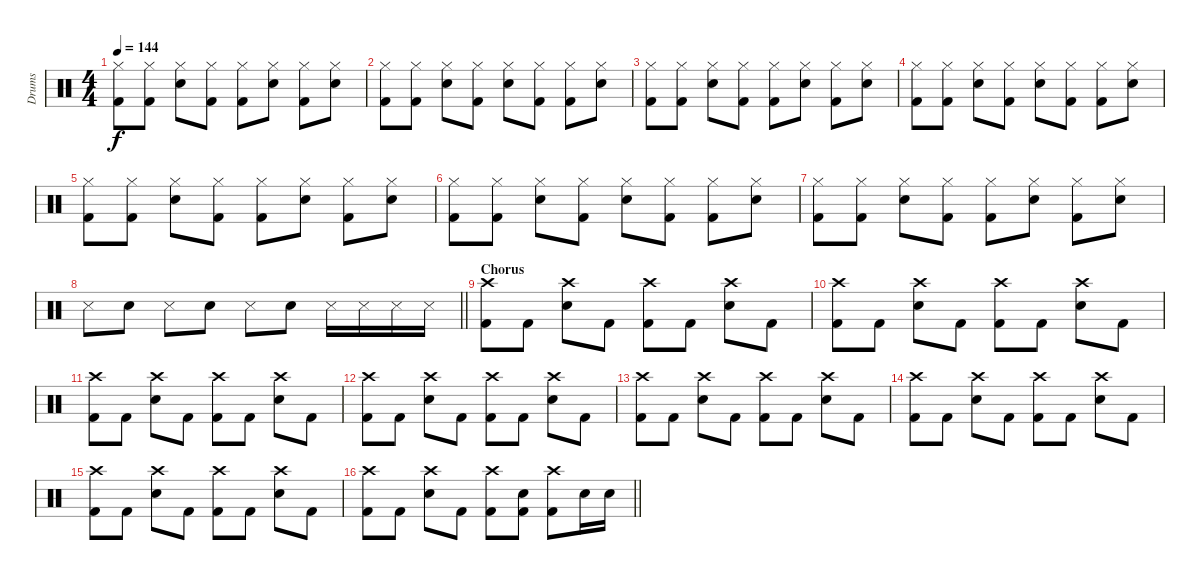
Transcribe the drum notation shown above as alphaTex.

\track ("Drums" "Drums") {instrument percussion}
\staff {score}
\articulation defaults
\ts (4 4)
\tempo 144
\clef neutral
\ks c
("Hi-Hat (closed)" "Kick (hit) 2").8{dy f} ("Hi-Hat (closed)" "Kick (hit) 2").8 ("Hi-Hat (closed)" "Electric Snare (hit)").8 ("Hi-Hat (closed)" "Kick (hit) 2").8 ("Hi-Hat (closed)" "Kick (hit) 2").8 ("Hi-Hat (closed)" "Electric Snare (hit)").8 ("Hi-Hat (closed)" "Kick (hit) 2").8 ("Hi-Hat (closed)" "Electric Snare (hit)").8 |
("Hi-Hat (closed)" "Kick (hit) 2").8 ("Hi-Hat (closed)" "Kick (hit) 2").8 ("Hi-Hat (closed)" "Electric Snare (hit)").8 ("Hi-Hat (closed)" "Kick (hit) 2").8 ("Hi-Hat (closed)" "Electric Snare (hit)").8 ("Hi-Hat (closed)" "Kick (hit) 2").8 ("Hi-Hat (closed)" "Kick (hit) 2").8 ("Hi-Hat (closed)" "Electric Snare (hit)").8 |
("Hi-Hat (closed)" "Kick (hit) 2").8 ("Hi-Hat (closed)" "Kick (hit) 2").8 ("Hi-Hat (closed)" "Electric Snare (hit)").8 ("Hi-Hat (closed)" "Kick (hit) 2").8 ("Hi-Hat (closed)" "Kick (hit) 2").8 ("Hi-Hat (closed)" "Electric Snare (hit)").8 ("Hi-Hat (closed)" "Kick (hit) 2").8 ("Hi-Hat (closed)" "Electric Snare (hit)").8 |
("Hi-Hat (closed)" "Kick (hit) 2").8 ("Hi-Hat (closed)" "Kick (hit) 2").8 ("Hi-Hat (closed)" "Electric Snare (hit)").8 ("Hi-Hat (closed)" "Kick (hit) 2").8 ("Hi-Hat (closed)" "Electric Snare (hit)").8 ("Hi-Hat (closed)" "Kick (hit) 2").8 ("Hi-Hat (closed)" "Kick (hit) 2").8 ("Hi-Hat (closed)" "Electric Snare (hit)").8 |
("Hi-Hat (closed)" "Kick (hit) 2").8 ("Hi-Hat (closed)" "Kick (hit) 2").8 ("Hi-Hat (closed)" "Electric Snare (hit)").8 ("Hi-Hat (closed)" "Kick (hit) 2").8 ("Hi-Hat (closed)" "Kick (hit) 2").8 ("Hi-Hat (closed)" "Electric Snare (hit)").8 ("Hi-Hat (closed)" "Kick (hit) 2").8 ("Hi-Hat (closed)" "Electric Snare (hit)").8 |
("Hi-Hat (closed)" "Kick (hit) 2").8 ("Hi-Hat (closed)" "Kick (hit) 2").8 ("Hi-Hat (closed)" "Electric Snare (hit)").8 ("Hi-Hat (closed)" "Kick (hit) 2").8 ("Hi-Hat (closed)" "Electric Snare (hit)").8 ("Hi-Hat (closed)" "Kick (hit) 2").8 ("Hi-Hat (closed)" "Kick (hit) 2").8 ("Hi-Hat (closed)" "Electric Snare (hit)").8 |
("Hi-Hat (closed)" "Kick (hit) 2").8 ("Hi-Hat (closed)" "Kick (hit) 2").8 ("Hi-Hat (closed)" "Electric Snare (hit)").8 ("Hi-Hat (closed)" "Kick (hit) 2").8 ("Hi-Hat (closed)" "Kick (hit) 2").8 ("Hi-Hat (closed)" "Electric Snare (hit)").8 ("Hi-Hat (closed)" "Kick (hit) 2").8 ("Hi-Hat (closed)" "Electric Snare (hit)").8 |
\barLineRight lightlight "Metronome (hit)".8 "Metronome (bell)".8 "Metronome (hit)".8 "Metronome (bell)".8 "Metronome (hit)".8 "Metronome (bell)".8 "Metronome (hit)".16 "Metronome (hit)".16 "Metronome (hit)".16 "Metronome (hit)".16
|
\section ("" "Chorus")
("Crash high (hit)" "Kick (hit) 2").8 "Kick (hit) 2".8 ("Crash high (hit)" "Electric Snare (hit)").8 "Kick (hit) 2".8 ("Crash high (hit)" "Kick (hit) 2").8 "Kick (hit) 2".8 ("Crash high (hit)" "Electric Snare (hit)").8 "Kick (hit) 2".8 |
("Crash high (hit)" "Kick (hit) 2").8 "Kick (hit) 2".8 ("Crash high (hit)" "Electric Snare (hit)").8 "Kick (hit) 2".8 ("Crash high (hit)" "Kick (hit) 2").8 "Kick (hit) 2".8 ("Crash high (hit)" "Electric Snare (hit)").8 "Kick (hit) 2".8 |
("Crash high (hit)" "Kick (hit) 2").8 "Kick (hit) 2".8 ("Crash high (hit)" "Electric Snare (hit)").8 "Kick (hit) 2".8 ("Crash high (hit)" "Kick (hit) 2").8 "Kick (hit) 2".8 ("Crash high (hit)" "Electric Snare (hit)").8 "Kick (hit) 2".8 |
("Crash high (hit)" "Kick (hit) 2").8 "Kick (hit) 2".8 ("Crash high (hit)" "Electric Snare (hit)").8 "Kick (hit) 2".8 ("Crash high (hit)" "Kick (hit) 2").8 "Kick (hit) 2".8 ("Crash high (hit)" "Electric Snare (hit)").8 "Kick (hit) 2".8 |
("Crash high (hit)" "Kick (hit) 2").8 "Kick (hit) 2".8 ("Crash high (hit)" "Electric Snare (hit)").8 "Kick (hit) 2".8 ("Crash high (hit)" "Kick (hit) 2").8 "Kick (hit) 2".8 ("Crash high (hit)" "Electric Snare (hit)").8 "Kick (hit) 2".8 |
("Crash high (hit)" "Kick (hit) 2").8 "Kick (hit) 2".8 ("Crash high (hit)" "Electric Snare (hit)").8 "Kick (hit) 2".8 ("Crash high (hit)" "Kick (hit) 2").8 "Kick (hit) 2".8 ("Crash high (hit)" "Electric Snare (hit)").8 "Kick (hit) 2".8 |
("Crash high (hit)" "Kick (hit) 2").8 "Kick (hit) 2".8 ("Crash high (hit)" "Electric Snare (hit)").8 "Kick (hit) 2".8 ("Crash high (hit)" "Kick (hit) 2").8 "Kick (hit) 2".8 ("Crash high (hit)" "Electric Snare (hit)").8 "Kick (hit) 2".8 |
\barLineRight lightlight
("Crash high (hit)" "Kick (hit) 2").8 "Kick (hit) 2".8 ("Crash high (hit)" "Electric Snare (hit)").8 "Kick (hit) 2".8 ("Crash high (hit)" "Kick (hit) 2").8 ("Electric Snare (hit)" "Kick (hit) 2").8 ("Crash high (hit)" "Kick (hit) 2").8 "Electric Snare (hit)".16 "Electric Snare (hit)".16
